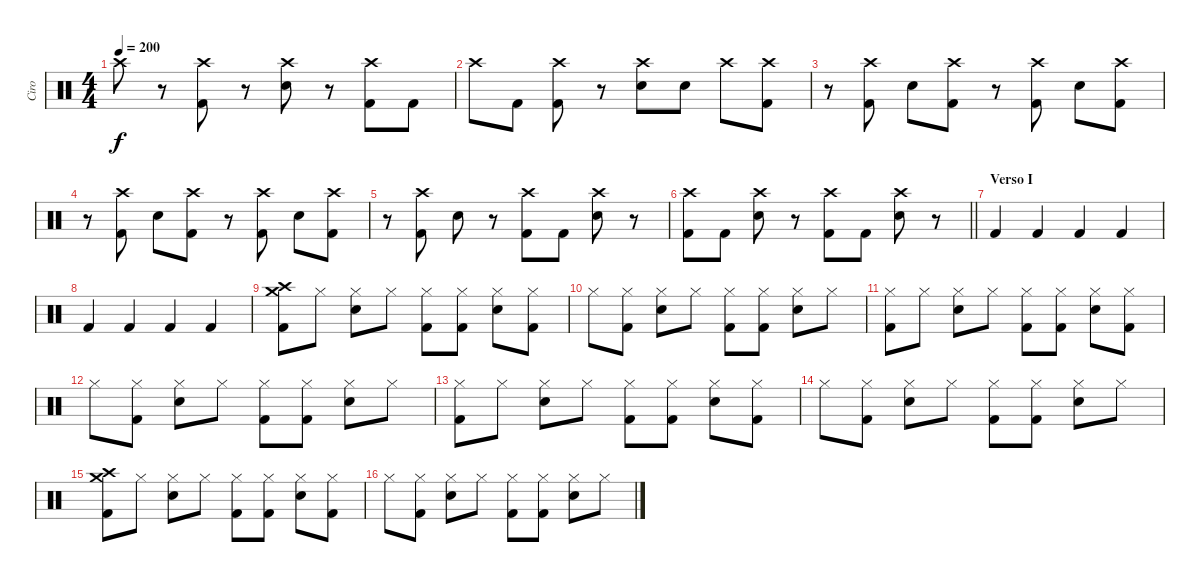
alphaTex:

\track ("Ciro" "Ciro") {instrument percussion}
\staff {score}
\articulation defaults
\ts (4 4)
\tempo 200
\clef neutral
\ks c "Crash high (hit)".8{dy f}
r.8 ("Crash high (hit)" "Kick (hit) 2").8 r.8 ("Crash high (hit)" "Snare (hit) 2").8 r.8 ("Crash high (hit)" "Kick (hit) 2").8 "Kick (hit) 2".8 |
"Crash high (hit)".8 "Kick (hit) 2".8 ("Crash high (hit)" "Kick (hit) 2").8 r.8 ("Crash high (hit)" "Snare (hit) 2").8 "Snare (hit) 2".8 "Crash high (hit)".8 ("Crash high (hit)" "Kick (hit) 2").8 |
r.8 ("Crash high (hit)" "Kick (hit) 2").8 "Snare (hit) 2".8 ("Crash high (hit)" "Kick (hit) 2").8 r.8 ("Crash high (hit)" "Kick (hit) 2").8 "Snare (hit) 2".8 ("Crash high (hit)" "Kick (hit) 2").8 |
r.8 ("Crash high (hit)" "Kick (hit) 2").8 "Snare (hit) 2".8 ("Crash high (hit)" "Kick (hit) 2").8 r.8 ("Crash high (hit)" "Kick (hit) 2").8 "Snare (hit) 2".8 ("Crash high (hit)" "Kick (hit) 2").8 |
r.8 ("Crash high (hit)" "Kick (hit) 2").8 "Snare (hit) 2".8 r.8 ("Crash high (hit)" "Kick (hit) 2").8 "Kick (hit) 2".8 ("Crash high (hit)" "Snare (hit) 2").8 r.8 |
\barLineRight lightlight
("Crash high (hit)" "Kick (hit) 2").8 "Kick (hit) 2".8 ("Crash high (hit)" "Snare (hit) 2").8 r.8 ("Crash high (hit)" "Kick (hit) 2").8 "Kick (hit) 2".8 ("Crash high (hit)" "Snare (hit) 2").8 r.8 |
\section ("" "Verso I")
"Kick (hit) 2".4 "Kick (hit) 2".4 "Kick (hit) 2".4 "Kick (hit) 2".4 |
"Kick (hit) 2".4 "Kick (hit) 2".4 "Kick (hit) 2".4 "Kick (hit) 2".4 |
("Crash high (hit)" "Crash medium (hit)" "Kick (hit) 2").8 "Hi-Hat (closed)".8 ("Hi-Hat (closed)" "Snare (hit) 2").8 "Hi-Hat (closed)".8 ("Hi-Hat (closed)" "Kick (hit) 2").8 ("Hi-Hat (closed)" "Kick (hit) 2").8 ("Hi-Hat (closed)" "Snare (hit) 2").8 ("Hi-Hat (closed)" "Kick (hit) 2").8 |
"Hi-Hat (closed)".8 ("Hi-Hat (closed)" "Kick (hit) 2").8 ("Hi-Hat (closed)" "Snare (hit) 2").8 "Hi-Hat (closed)".8 ("Hi-Hat (closed)" "Kick (hit) 2").8 ("Hi-Hat (closed)" "Kick (hit) 2").8 ("Hi-Hat (closed)" "Snare (hit) 2").8 "Hi-Hat (closed)".8 |
("Hi-Hat (closed)" "Kick (hit) 2").8 "Hi-Hat (closed)".8 ("Hi-Hat (closed)" "Snare (hit) 2").8 "Hi-Hat (closed)".8 ("Hi-Hat (closed)" "Kick (hit) 2").8 ("Hi-Hat (closed)" "Kick (hit) 2").8 ("Hi-Hat (closed)" "Snare (hit) 2").8 ("Hi-Hat (closed)" "Kick (hit) 2").8 |
"Hi-Hat (closed)".8 ("Hi-Hat (closed)" "Kick (hit) 2").8 ("Hi-Hat (closed)" "Snare (hit) 2").8 "Hi-Hat (closed)".8 ("Hi-Hat (closed)" "Kick (hit) 2").8 ("Hi-Hat (closed)" "Kick (hit) 2").8 ("Hi-Hat (closed)" "Snare (hit) 2").8 "Hi-Hat (closed)".8 |
("Hi-Hat (closed)" "Kick (hit) 2").8 "Hi-Hat (closed)".8 ("Hi-Hat (closed)" "Snare (hit) 2").8 "Hi-Hat (closed)".8 ("Hi-Hat (closed)" "Kick (hit) 2").8 ("Hi-Hat (closed)" "Kick (hit) 2").8 ("Hi-Hat (closed)" "Snare (hit) 2").8 ("Hi-Hat (closed)" "Kick (hit) 2").8 |
"Hi-Hat (closed)".8 ("Hi-Hat (closed)" "Kick (hit) 2").8 ("Hi-Hat (closed)" "Snare (hit) 2").8 "Hi-Hat (closed)".8 ("Hi-Hat (closed)" "Kick (hit) 2").8 ("Hi-Hat (closed)" "Kick (hit) 2").8 ("Hi-Hat (closed)" "Snare (hit) 2").8 "Hi-Hat (closed)".8 |
("Crash high (hit)" "Crash medium (hit)" "Kick (hit) 2").8 "Hi-Hat (closed)".8 ("Hi-Hat (closed)" "Snare (hit) 2").8 "Hi-Hat (closed)".8 ("Hi-Hat (closed)" "Kick (hit) 2").8 ("Hi-Hat (closed)" "Kick (hit) 2").8 ("Hi-Hat (closed)" "Snare (hit) 2").8 ("Hi-Hat (closed)" "Kick (hit) 2").8 |
"Hi-Hat (closed)".8 ("Hi-Hat (closed)" "Kick (hit) 2").8 ("Hi-Hat (closed)" "Snare (hit) 2").8 "Hi-Hat (closed)".8 ("Hi-Hat (closed)" "Kick (hit) 2").8 ("Hi-Hat (closed)" "Kick (hit) 2").8 ("Hi-Hat (closed)" "Snare (hit) 2").8 "Hi-Hat (closed)".8
